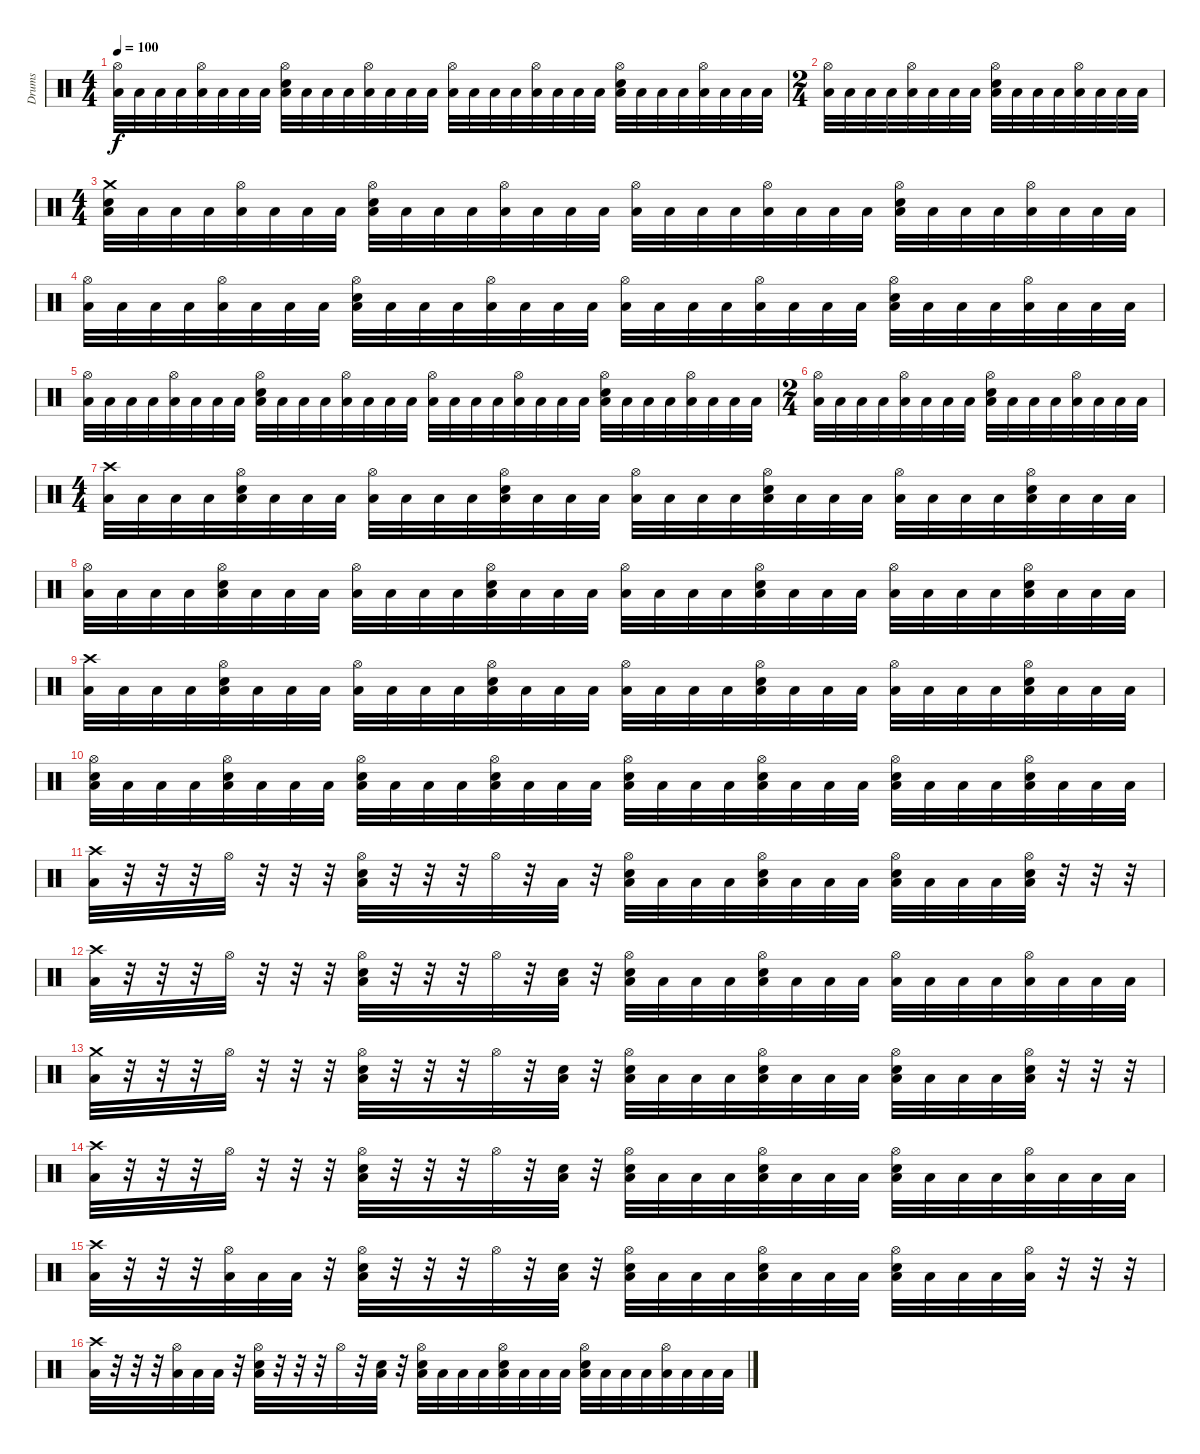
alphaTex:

\track ("Drums" "Drums") {instrument percussion}
\staff {score}
\articulation defaults
\ts (4 4)
\tempo 100
\clef neutral
\ks c
("Hi-Hat (open)" "Low Floor Tom (hit)").32{dy f} "Low Floor Tom (hit)".32 "Low Floor Tom (hit)".32 "Low Floor Tom (hit)".32 ("Hi-Hat (open)" "Low Floor Tom (hit)").32 "Low Floor Tom (hit)".32 "Low Floor Tom (hit)".32 "Low Floor Tom (hit)".32 ("Hi-Hat (open)" "Electric Snare (hit)" "Low Floor Tom (hit)").32 "Low Floor Tom (hit)".32 "Low Floor Tom (hit)".32 "Low Floor Tom (hit)".32 ("Hi-Hat (open)" "Low Floor Tom (hit)").32 "Low Floor Tom (hit)".32 "Low Floor Tom (hit)".32 "Low Floor Tom (hit)".32 ("Hi-Hat (open)" "Low Floor Tom (hit)").32 "Low Floor Tom (hit)".32 "Low Floor Tom (hit)".32 "Low Floor Tom (hit)".32 ("Hi-Hat (open)" "Low Floor Tom (hit)").32 "Low Floor Tom (hit)".32 "Low Floor Tom (hit)".32 "Low Floor Tom (hit)".32 ("Hi-Hat (open)" "Electric Snare (hit)" "Low Floor Tom (hit)").32 "Low Floor Tom (hit)".32 "Low Floor Tom (hit)".32 "Low Floor Tom (hit)".32 ("Hi-Hat (open)" "Low Floor Tom (hit)").32 "Low Floor Tom (hit)".32 "Low Floor Tom (hit)".32 "Low Floor Tom (hit)".32 |
\ts (2 4)
("Hi-Hat (open)" "Low Floor Tom (hit)").32 "Low Floor Tom (hit)".32 "Low Floor Tom (hit)".32 "Low Floor Tom (hit)".32 ("Hi-Hat (open)" "Low Floor Tom (hit)").32 "Low Floor Tom (hit)".32 "Low Floor Tom (hit)".32 "Low Floor Tom (hit)".32 ("Hi-Hat (open)" "Electric Snare (hit)" "Low Floor Tom (hit)").32 "Low Floor Tom (hit)".32 "Low Floor Tom (hit)".32 "Low Floor Tom (hit)".32 ("Hi-Hat (open)" "Low Floor Tom (hit)").32 "Low Floor Tom (hit)".32 "Low Floor Tom (hit)".32 "Low Floor Tom (hit)".32 |
\ts (4 4)
("Crash medium (hit)" "Electric Snare (hit)" "Low Floor Tom (hit)").32 "Low Floor Tom (hit)".32 "Low Floor Tom (hit)".32 "Low Floor Tom (hit)".32 ("Hi-Hat (open)" "Low Floor Tom (hit)").32 "Low Floor Tom (hit)".32 "Low Floor Tom (hit)".32 "Low Floor Tom (hit)".32 ("Hi-Hat (open)" "Electric Snare (hit)" "Low Floor Tom (hit)").32 "Low Floor Tom (hit)".32 "Low Floor Tom (hit)".32 "Low Floor Tom (hit)".32 ("Hi-Hat (open)" "Low Floor Tom (hit)").32 "Low Floor Tom (hit)".32 "Low Floor Tom (hit)".32 "Low Floor Tom (hit)".32 ("Hi-Hat (open)" "Low Floor Tom (hit)").32 "Low Floor Tom (hit)".32 "Low Floor Tom (hit)".32 "Low Floor Tom (hit)".32 ("Hi-Hat (open)" "Low Floor Tom (hit)").32 "Low Floor Tom (hit)".32 "Low Floor Tom (hit)".32 "Low Floor Tom (hit)".32 ("Hi-Hat (open)" "Electric Snare (hit)" "Low Floor Tom (hit)").32 "Low Floor Tom (hit)".32 "Low Floor Tom (hit)".32 "Low Floor Tom (hit)".32 ("Hi-Hat (open)" "Low Floor Tom (hit)").32 "Low Floor Tom (hit)".32 "Low Floor Tom (hit)".32 "Low Floor Tom (hit)".32 |
("Hi-Hat (open)" "Low Floor Tom (hit)").32 "Low Floor Tom (hit)".32 "Low Floor Tom (hit)".32 "Low Floor Tom (hit)".32 ("Hi-Hat (open)" "Low Floor Tom (hit)").32 "Low Floor Tom (hit)".32 "Low Floor Tom (hit)".32 "Low Floor Tom (hit)".32 ("Hi-Hat (open)" "Electric Snare (hit)" "Low Floor Tom (hit)").32 "Low Floor Tom (hit)".32 "Low Floor Tom (hit)".32 "Low Floor Tom (hit)".32 ("Hi-Hat (open)" "Low Floor Tom (hit)").32 "Low Floor Tom (hit)".32 "Low Floor Tom (hit)".32 "Low Floor Tom (hit)".32 ("Hi-Hat (open)" "Low Floor Tom (hit)").32 "Low Floor Tom (hit)".32 "Low Floor Tom (hit)".32 "Low Floor Tom (hit)".32 ("Hi-Hat (open)" "Low Floor Tom (hit)").32 "Low Floor Tom (hit)".32 "Low Floor Tom (hit)".32 "Low Floor Tom (hit)".32 ("Hi-Hat (open)" "Electric Snare (hit)" "Low Floor Tom (hit)").32 "Low Floor Tom (hit)".32 "Low Floor Tom (hit)".32 "Low Floor Tom (hit)".32 ("Hi-Hat (open)" "Low Floor Tom (hit)").32 "Low Floor Tom (hit)".32 "Low Floor Tom (hit)".32 "Low Floor Tom (hit)".32 |
("Hi-Hat (open)" "Low Floor Tom (hit)").32 "Low Floor Tom (hit)".32 "Low Floor Tom (hit)".32 "Low Floor Tom (hit)".32 ("Hi-Hat (open)" "Low Floor Tom (hit)").32 "Low Floor Tom (hit)".32 "Low Floor Tom (hit)".32 "Low Floor Tom (hit)".32 ("Hi-Hat (open)" "Electric Snare (hit)" "Low Floor Tom (hit)").32 "Low Floor Tom (hit)".32 "Low Floor Tom (hit)".32 "Low Floor Tom (hit)".32 ("Hi-Hat (open)" "Low Floor Tom (hit)").32 "Low Floor Tom (hit)".32 "Low Floor Tom (hit)".32 "Low Floor Tom (hit)".32 ("Hi-Hat (open)" "Low Floor Tom (hit)").32 "Low Floor Tom (hit)".32 "Low Floor Tom (hit)".32 "Low Floor Tom (hit)".32 ("Hi-Hat (open)" "Low Floor Tom (hit)").32 "Low Floor Tom (hit)".32 "Low Floor Tom (hit)".32 "Low Floor Tom (hit)".32 ("Hi-Hat (open)" "Electric Snare (hit)" "Low Floor Tom (hit)").32 "Low Floor Tom (hit)".32 "Low Floor Tom (hit)".32 "Low Floor Tom (hit)".32 ("Hi-Hat (open)" "Low Floor Tom (hit)").32 "Low Floor Tom (hit)".32 "Low Floor Tom (hit)".32 "Low Floor Tom (hit)".32 |
\ts (2 4)
("Hi-Hat (open)" "Low Floor Tom (hit)").32 "Low Floor Tom (hit)".32 "Low Floor Tom (hit)".32 "Low Floor Tom (hit)".32 ("Hi-Hat (open)" "Low Floor Tom (hit)").32 "Low Floor Tom (hit)".32 "Low Floor Tom (hit)".32 "Low Floor Tom (hit)".32 ("Hi-Hat (open)" "Electric Snare (hit)" "Low Floor Tom (hit)").32 "Low Floor Tom (hit)".32 "Low Floor Tom (hit)".32 "Low Floor Tom (hit)".32 ("Hi-Hat (open)" "Low Floor Tom (hit)").32 "Low Floor Tom (hit)".32 "Low Floor Tom (hit)".32 "Low Floor Tom (hit)".32 |
\ts (4 4)
("Crash high (hit)" "Low Floor Tom (hit)").32 "Low Floor Tom (hit)".32 "Low Floor Tom (hit)".32 "Low Floor Tom (hit)".32 ("Hi-Hat (open)" "Electric Snare (hit)" "Low Floor Tom (hit)").32 "Low Floor Tom (hit)".32 "Low Floor Tom (hit)".32 "Low Floor Tom (hit)".32 ("Hi-Hat (open)" "Low Floor Tom (hit)").32 "Low Floor Tom (hit)".32 "Low Floor Tom (hit)".32 "Low Floor Tom (hit)".32 ("Hi-Hat (open)" "Electric Snare (hit)" "Low Floor Tom (hit)").32 "Low Floor Tom (hit)".32 "Low Floor Tom (hit)".32 "Low Floor Tom (hit)".32 ("Hi-Hat (open)" "Low Floor Tom (hit)").32 "Low Floor Tom (hit)".32 "Low Floor Tom (hit)".32 "Low Floor Tom (hit)".32 ("Hi-Hat (open)" "Electric Snare (hit)" "Low Floor Tom (hit)").32 "Low Floor Tom (hit)".32 "Low Floor Tom (hit)".32 "Low Floor Tom (hit)".32 ("Hi-Hat (open)" "Low Floor Tom (hit)").32 "Low Floor Tom (hit)".32 "Low Floor Tom (hit)".32 "Low Floor Tom (hit)".32 ("Hi-Hat (open)" "Electric Snare (hit)" "Low Floor Tom (hit)").32 "Low Floor Tom (hit)".32 "Low Floor Tom (hit)".32 "Low Floor Tom (hit)".32 |
("Hi-Hat (open)" "Low Floor Tom (hit)").32 "Low Floor Tom (hit)".32 "Low Floor Tom (hit)".32 "Low Floor Tom (hit)".32 ("Hi-Hat (open)" "Electric Snare (hit)" "Low Floor Tom (hit)").32 "Low Floor Tom (hit)".32 "Low Floor Tom (hit)".32 "Low Floor Tom (hit)".32 ("Hi-Hat (open)" "Low Floor Tom (hit)").32 "Low Floor Tom (hit)".32 "Low Floor Tom (hit)".32 "Low Floor Tom (hit)".32 ("Hi-Hat (open)" "Electric Snare (hit)" "Low Floor Tom (hit)").32 "Low Floor Tom (hit)".32 "Low Floor Tom (hit)".32 "Low Floor Tom (hit)".32 ("Hi-Hat (open)" "Low Floor Tom (hit)").32 "Low Floor Tom (hit)".32 "Low Floor Tom (hit)".32 "Low Floor Tom (hit)".32 ("Hi-Hat (open)" "Electric Snare (hit)" "Low Floor Tom (hit)").32 "Low Floor Tom (hit)".32 "Low Floor Tom (hit)".32 "Low Floor Tom (hit)".32 ("Hi-Hat (open)" "Low Floor Tom (hit)").32 "Low Floor Tom (hit)".32 "Low Floor Tom (hit)".32 "Low Floor Tom (hit)".32 ("Hi-Hat (open)" "Electric Snare (hit)" "Low Floor Tom (hit)").32 "Low Floor Tom (hit)".32 "Low Floor Tom (hit)".32 "Low Floor Tom (hit)".32 |
("Crash high (hit)" "Low Floor Tom (hit)").32 "Low Floor Tom (hit)".32 "Low Floor Tom (hit)".32 "Low Floor Tom (hit)".32 ("Hi-Hat (open)" "Electric Snare (hit)" "Low Floor Tom (hit)").32 "Low Floor Tom (hit)".32 "Low Floor Tom (hit)".32 "Low Floor Tom (hit)".32 ("Hi-Hat (open)" "Low Floor Tom (hit)").32 "Low Floor Tom (hit)".32 "Low Floor Tom (hit)".32 "Low Floor Tom (hit)".32 ("Hi-Hat (open)" "Electric Snare (hit)" "Low Floor Tom (hit)").32 "Low Floor Tom (hit)".32 "Low Floor Tom (hit)".32 "Low Floor Tom (hit)".32 ("Hi-Hat (open)" "Low Floor Tom (hit)").32 "Low Floor Tom (hit)".32 "Low Floor Tom (hit)".32 "Low Floor Tom (hit)".32 ("Hi-Hat (open)" "Electric Snare (hit)" "Low Floor Tom (hit)").32 "Low Floor Tom (hit)".32 "Low Floor Tom (hit)".32 "Low Floor Tom (hit)".32 ("Hi-Hat (open)" "Low Floor Tom (hit)").32 "Low Floor Tom (hit)".32 "Low Floor Tom (hit)".32 "Low Floor Tom (hit)".32 ("Hi-Hat (open)" "Electric Snare (hit)" "Low Floor Tom (hit)").32 "Low Floor Tom (hit)".32 "Low Floor Tom (hit)".32 "Low Floor Tom (hit)".32 |
("Hi-Hat (open)" "Electric Snare (hit)" "Low Floor Tom (hit)").32 "Low Floor Tom (hit)".32 "Low Floor Tom (hit)".32 "Low Floor Tom (hit)".32 ("Hi-Hat (open)" "Electric Snare (hit)" "Low Floor Tom (hit)").32 "Low Floor Tom (hit)".32 "Low Floor Tom (hit)".32 "Low Floor Tom (hit)".32 ("Hi-Hat (open)" "Electric Snare (hit)" "Low Floor Tom (hit)").32 "Low Floor Tom (hit)".32 "Low Floor Tom (hit)".32 "Low Floor Tom (hit)".32 ("Hi-Hat (open)" "Electric Snare (hit)" "Low Floor Tom (hit)").32 "Low Floor Tom (hit)".32 "Low Floor Tom (hit)".32 "Low Floor Tom (hit)".32 ("Hi-Hat (open)" "Electric Snare (hit)" "Low Floor Tom (hit)").32 "Low Floor Tom (hit)".32 "Low Floor Tom (hit)".32 "Low Floor Tom (hit)".32 ("Hi-Hat (open)" "Electric Snare (hit)" "Low Floor Tom (hit)").32 "Low Floor Tom (hit)".32 "Low Floor Tom (hit)".32 "Low Floor Tom (hit)".32 ("Hi-Hat (open)" "Electric Snare (hit)" "Low Floor Tom (hit)").32 "Low Floor Tom (hit)".32 "Low Floor Tom (hit)".32 "Low Floor Tom (hit)".32 ("Hi-Hat (open)" "Electric Snare (hit)" "Low Floor Tom (hit)").32 "Low Floor Tom (hit)".32 "Low Floor Tom (hit)".32 "Low Floor Tom (hit)".32 |
("Crash high (hit)" "Low Floor Tom (hit)").32 r.32 r.32 r.32 "Hi-Hat (open)".32 r.32 r.32 r.32 ("Hi-Hat (open)" "Electric Snare (hit)" "Low Floor Tom (hit)").32 r.32 r.32 r.32 "Hi-Hat (open)".32 r.32 "Low Floor Tom (hit)".32 r.32 ("Hi-Hat (open)" "Electric Snare (hit)" "Low Floor Tom (hit)").32 "Low Floor Tom (hit)".32 "Low Floor Tom (hit)".32 "Low Floor Tom (hit)".32 ("Hi-Hat (open)" "Electric Snare (hit)" "Low Floor Tom (hit)").32 "Low Floor Tom (hit)".32 "Low Floor Tom (hit)".32 "Low Floor Tom (hit)".32 ("Hi-Hat (open)" "Electric Snare (hit)" "Low Floor Tom (hit)").32 "Low Floor Tom (hit)".32 "Low Floor Tom (hit)".32 "Low Floor Tom (hit)".32 ("Hi-Hat (open)" "Electric Snare (hit)" "Low Floor Tom (hit)").32 r.32 r.32 r.32 |
("Crash high (hit)" "Low Floor Tom (hit)").32 r.32 r.32 r.32 "Hi-Hat (open)".32 r.32 r.32 r.32 ("Hi-Hat (open)" "Electric Snare (hit)" "Low Floor Tom (hit)").32 r.32 r.32 r.32 "Hi-Hat (open)".32 r.32 ("Electric Snare (hit)" "Low Floor Tom (hit)").32 r.32 ("Hi-Hat (open)" "Electric Snare (hit)" "Low Floor Tom (hit)").32 "Low Floor Tom (hit)".32 "Low Floor Tom (hit)".32 "Low Floor Tom (hit)".32 ("Hi-Hat (open)" "Electric Snare (hit)" "Low Floor Tom (hit)").32 "Low Floor Tom (hit)".32 "Low Floor Tom (hit)".32 "Low Floor Tom (hit)".32 ("Hi-Hat (open)" "Low Floor Tom (hit)").32 "Low Floor Tom (hit)".32 "Low Floor Tom (hit)".32 "Low Floor Tom (hit)".32 ("Hi-Hat (open)" "Low Floor Tom (hit)").32 "Low Floor Tom (hit)".32 "Low Floor Tom (hit)".32 "Low Floor Tom (hit)".32 |
("Crash medium (hit)" "Low Floor Tom (hit)").32 r.32 r.32 r.32 "Hi-Hat (open)".32 r.32 r.32 r.32 ("Hi-Hat (open)" "Electric Snare (hit)" "Low Floor Tom (hit)").32 r.32 r.32 r.32 "Hi-Hat (open)".32 r.32 ("Electric Snare (hit)" "Low Floor Tom (hit)").32 r.32 ("Hi-Hat (open)" "Electric Snare (hit)" "Low Floor Tom (hit)").32 "Low Floor Tom (hit)".32 "Low Floor Tom (hit)".32 "Low Floor Tom (hit)".32 ("Hi-Hat (open)" "Electric Snare (hit)" "Low Floor Tom (hit)").32 "Low Floor Tom (hit)".32 "Low Floor Tom (hit)".32 "Low Floor Tom (hit)".32 ("Hi-Hat (open)" "Electric Snare (hit)" "Low Floor Tom (hit)").32 "Low Floor Tom (hit)".32 "Low Floor Tom (hit)".32 "Low Floor Tom (hit)".32 ("Hi-Hat (open)" "Electric Snare (hit)" "Low Floor Tom (hit)").32 r.32 r.32 r.32 |
("Crash high (hit)" "Low Floor Tom (hit)").32 r.32 r.32 r.32 "Hi-Hat (open)".32 r.32 r.32 r.32 ("Hi-Hat (open)" "Electric Snare (hit)" "Low Floor Tom (hit)").32 r.32 r.32 r.32 "Hi-Hat (open)".32 r.32 ("Electric Snare (hit)" "Low Floor Tom (hit)").32 r.32 ("Hi-Hat (open)" "Electric Snare (hit)" "Low Floor Tom (hit)").32 "Low Floor Tom (hit)".32 "Low Floor Tom (hit)".32 "Low Floor Tom (hit)".32 ("Hi-Hat (open)" "Electric Snare (hit)" "Low Floor Tom (hit)").32 "Low Floor Tom (hit)".32 "Low Floor Tom (hit)".32 "Low Floor Tom (hit)".32 ("Hi-Hat (open)" "Electric Snare (hit)" "Low Floor Tom (hit)").32 "Low Floor Tom (hit)".32 "Low Floor Tom (hit)".32 "Low Floor Tom (hit)".32 ("Hi-Hat (open)" "Low Floor Tom (hit)").32 "Low Floor Tom (hit)".32 "Low Floor Tom (hit)".32 "Low Floor Tom (hit)".32 |
("Crash high (hit)" "Low Floor Tom (hit)").32 r.32 r.32 r.32 ("Hi-Hat (open)" "Low Floor Tom (hit)").32 "Low Floor Tom (hit)".32 "Low Floor Tom (hit)".32 r.32 ("Hi-Hat (open)" "Electric Snare (hit)" "Low Floor Tom (hit)").32 r.32 r.32 r.32 "Hi-Hat (open)".32 r.32 ("Electric Snare (hit)" "Low Floor Tom (hit)").32 r.32 ("Hi-Hat (open)" "Electric Snare (hit)" "Low Floor Tom (hit)").32 "Low Floor Tom (hit)".32 "Low Floor Tom (hit)".32 "Low Floor Tom (hit)".32 ("Hi-Hat (open)" "Electric Snare (hit)" "Low Floor Tom (hit)").32 "Low Floor Tom (hit)".32 "Low Floor Tom (hit)".32 "Low Floor Tom (hit)".32 ("Hi-Hat (open)" "Electric Snare (hit)" "Low Floor Tom (hit)").32 "Low Floor Tom (hit)".32 "Low Floor Tom (hit)".32 "Low Floor Tom (hit)".32 ("Hi-Hat (open)" "Low Floor Tom (hit)").32 r.32 r.32 r.32 |
("Crash high (hit)" "Low Floor Tom (hit)").32 r.32 r.32 r.32 ("Hi-Hat (open)" "Low Floor Tom (hit)").32 "Low Floor Tom (hit)".32 "Low Floor Tom (hit)".32 r.32 ("Hi-Hat (open)" "Electric Snare (hit)" "Low Floor Tom (hit)").32 r.32 r.32 r.32 "Hi-Hat (open)".32 r.32 ("Electric Snare (hit)" "Low Floor Tom (hit)").32 r.32 ("Hi-Hat (open)" "Electric Snare (hit)" "Low Floor Tom (hit)").32 "Low Floor Tom (hit)".32 "Low Floor Tom (hit)".32 "Low Floor Tom (hit)".32 ("Hi-Hat (open)" "Electric Snare (hit)" "Low Floor Tom (hit)").32 "Low Floor Tom (hit)".32 "Low Floor Tom (hit)".32 "Low Floor Tom (hit)".32 ("Hi-Hat (open)" "Electric Snare (hit)" "Low Floor Tom (hit)").32 "Low Floor Tom (hit)".32 "Low Floor Tom (hit)".32 "Low Floor Tom (hit)".32 ("Hi-Hat (open)" "Low Floor Tom (hit)").32 "Low Floor Tom (hit)".32 "Low Floor Tom (hit)".32 "Low Floor Tom (hit)".32
